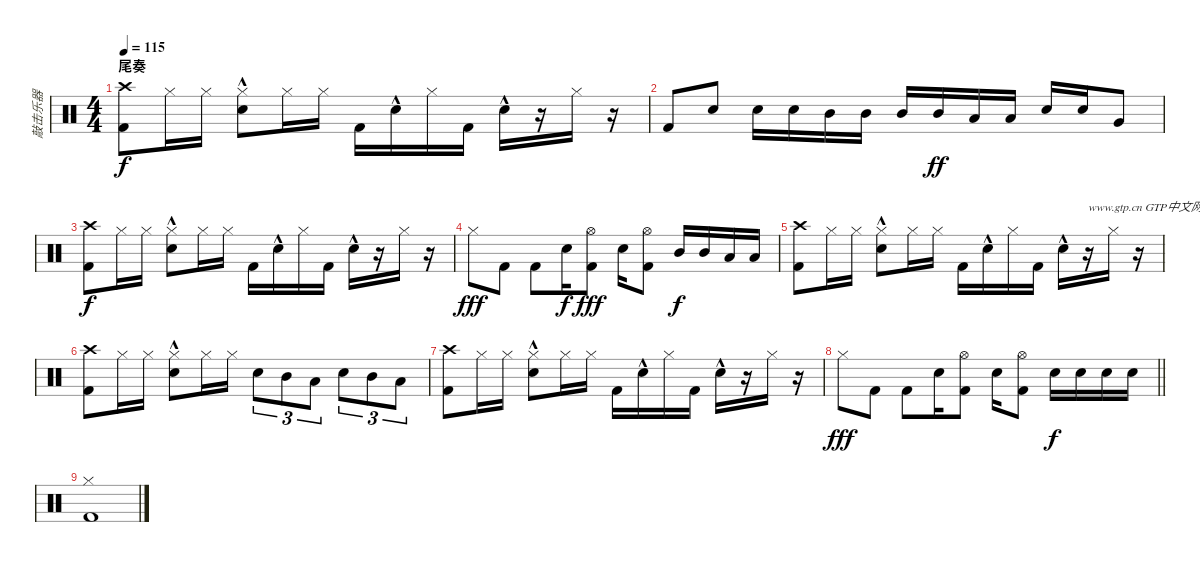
\track ("敲击乐器" "敲击乐器") {instrument percussion}
\staff {score}
\articulation defaults
\ts (4 4)
\section ("" "尾奏")
\tempo 115
\clef neutral
\ks c
("Crash high (hit)" "Kick (hit) 2").8{dy f} "Hi-Hat (closed)".16 "Hi-Hat (closed)".16 ("Hi-Hat (closed)" "Electric Snare (hit)"{hac}).8 "Hi-Hat (closed)".16 "Hi-Hat (closed)".16 "Kick (hit) 2".16 "Electric Snare (hit)"{hac}.16 "Hi-Hat (closed)".16 "Kick (hit) 2".16 "Electric Snare (hit)"{hac}.16 r.16 "Hi-Hat (closed)".16 r.16 |
"Kick (hit) 2".8 "Snare (hit) 2".8 "Snare (hit) 2".16 "Snare (hit) 2".16 "Mid Tom (hit)".16 "Mid Tom (hit)".16 "Mid Tom (hit)".16 "Mid Tom (hit)".16{dy ff} "Low Tom (hit)".16 "Low Tom (hit)".16 "Snare (hit) 2".16 "Snare (hit) 2".16 "Very Low Tom (hit)".8 |
("Crash high (hit)" "Kick (hit) 2").8{dy f} "Hi-Hat (closed)".16 "Hi-Hat (closed)".16 ("Hi-Hat (closed)" "Electric Snare (hit)"{hac}).8 "Hi-Hat (closed)".16 "Hi-Hat (closed)".16 "Kick (hit) 2".16 "Electric Snare (hit)"{hac}.16 "Hi-Hat (closed)".16 "Kick (hit) 2".16 "Electric Snare (hit)"{hac}.16 r.16 "Hi-Hat (closed)".16 r.16 |
"Hi-Hat (closed)".8{dy fff} "Kick (hit) 2".8 "Kick (hit) 2".8 "Electric Snare (hit)".16{dy f} ("Hi-Hat (open)" "Kick (hit) 2").8{dy fff} "Electric Snare (hit)".16 ("Hi-Hat (open)" "Kick (hit) 2").8 "Mid Tom (hit)".16{dy f} "Mid Tom (hit)".16 "Low Tom (hit)".16 "Low Tom (hit)".16 |
("Crash high (hit)" "Kick (hit) 2").8 "Hi-Hat (closed)".16 "Hi-Hat (closed)".16 ("Hi-Hat (closed)" "Electric Snare (hit)"{hac}).8 "Hi-Hat (closed)".16 "Hi-Hat (closed)".16 "Kick (hit) 2".16 "Electric Snare (hit)"{hac}.16 "Hi-Hat (closed)".16 "Kick (hit) 2".16 "Electric Snare (hit)"{hac}.16 r.16{txt "www.gtp.cn GTP中文网为您提供优秀的谱子"} "Hi-Hat (closed)".16 r.16 |
("Crash high (hit)" "Kick (hit) 2").8 "Hi-Hat (closed)".16 "Hi-Hat (closed)".16 ("Hi-Hat (closed)" "Electric Snare (hit)"{hac}).8 "Hi-Hat (closed)".16 "Hi-Hat (closed)".16 "Electric Snare (hit)".8{tu (3 2)} "Mid Tom (hit)".8{tu (3 2)} "Low Tom (hit)".8{tu (3 2)} "Electric Snare (hit)".8{tu (3 2)} "Mid Tom (hit)".8{tu (3 2)} "Low Tom (hit)".8{tu (3 2)} |
("Crash high (hit)" "Kick (hit) 2").8 "Hi-Hat (closed)".16 "Hi-Hat (closed)".16 ("Hi-Hat (closed)" "Electric Snare (hit)"{hac}).8 "Hi-Hat (closed)".16 "Hi-Hat (closed)".16 "Kick (hit) 2".16 "Electric Snare (hit)"{hac}.16 "Hi-Hat (closed)".16 "Kick (hit) 2".16 "Electric Snare (hit)"{hac}.16 r.16 "Hi-Hat (closed)".16 r.16 |
\barLineRight lightlight "Hi-Hat (closed)".8{dy fff} "Kick (hit) 2".8 "Kick (hit) 2".8 "Electric Snare (hit)".16
("Hi-Hat (open)" "Kick (hit) 2").8 "Electric Snare (hit)".16 ("Hi-Hat (open)" "Kick (hit) 2").8 "Snare (hit) 2".16{dy f} "Snare (hit) 2".16 "Snare (hit) 2".16 "Snare (hit) 2".16 |
("Hi-Hat (closed)" "Kick (hit) 2").1
